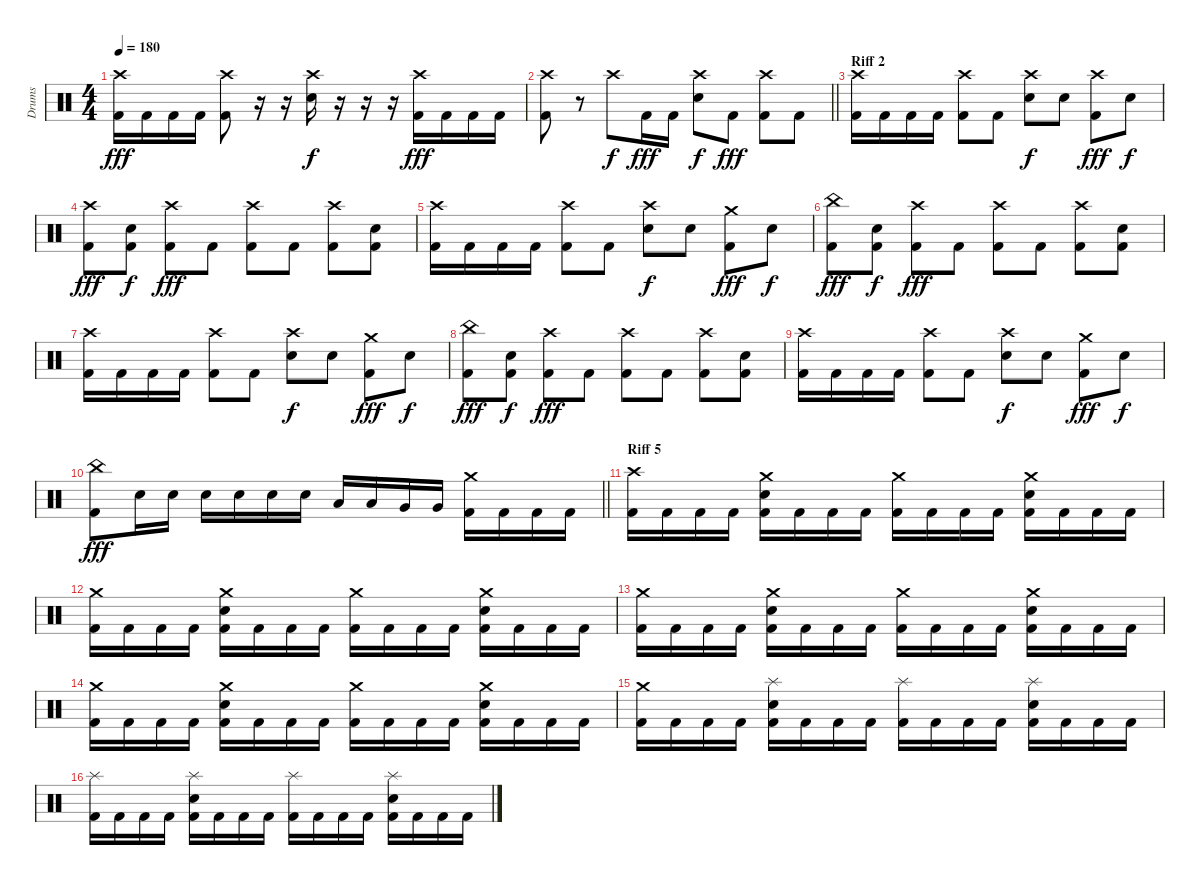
\track ("Drums" "Drums") {instrument percussion}
\staff {score}
\articulation defaults
\ts (4 4)
\tempo 180
\clef neutral
\ks c
("Crash high (hit)" "Kick (hit) 2").16{dy fff} "Kick (hit) 2".16 "Kick (hit) 2".16 "Kick (hit) 2".16 ("Crash high (hit)" "Kick (hit) 2").8 r.16 r.16 ("Crash high (hit)" "Electric Snare (hit)").16{dy f} r.16 r.16 r.16 ("Crash high (hit)" "Kick (hit) 2").16{dy fff} "Kick (hit) 2".16 "Kick (hit) 2".16 "Kick (hit) 2".16 |
\barLineRight lightlight
("Crash high (hit)" "Kick (hit) 2").8 r.8 "Crash high (hit)".8{dy f} "Kick (hit) 2".16{dy fff} "Kick (hit) 2".16 ("Crash high (hit)" "Electric Snare (hit)").8{dy f} "Kick (hit) 2".8{dy fff} ("Crash high (hit)" "Kick (hit) 2").8 "Kick (hit) 2".8 |
\section ("" "Riff 2")
("Crash high (hit)" "Kick (hit) 2").16 "Kick (hit) 2".16 "Kick (hit) 2".16 "Kick (hit) 2".16 ("Crash high (hit)" "Kick (hit) 2").8 "Kick (hit) 2".8 ("Crash high (hit)" "Electric Snare (hit)").8{dy f} "Electric Snare (hit)".8 ("Crash high (hit)" "Kick (hit) 2").8{dy fff} "Electric Snare (hit)".8{dy f} |
("Crash high (hit)" "Kick (hit) 2").8{dy fff} ("Electric Snare (hit)" "Kick (hit) 2").8{dy f} ("Crash high (hit)" "Kick (hit) 2").8{dy fff} "Kick (hit) 2".8 ("Crash high (hit)" "Kick (hit) 2").8 "Kick (hit) 2".8 ("Crash high (hit)" "Kick (hit) 2").8 ("Electric Snare (hit)" "Kick (hit) 2").8 |
("Crash high (hit)" "Kick (hit) 2").16 "Kick (hit) 2".16 "Kick (hit) 2".16 "Kick (hit) 2".16 ("Crash high (hit)" "Kick (hit) 2").8 "Kick (hit) 2".8 ("Crash high (hit)" "Electric Snare (hit)").8{dy f} "Electric Snare (hit)".8 ("Crash medium (hit)" "Kick (hit) 2").8{dy fff} "Electric Snare (hit)".8{dy f} |
("China (hit)" "Kick (hit) 2").8{dy fff} ("Electric Snare (hit)" "Kick (hit) 2").8{dy f} ("Crash high (hit)" "Kick (hit) 2").8{dy fff} "Kick (hit) 2".8 ("Crash high (hit)" "Kick (hit) 2").8 "Kick (hit) 2".8 ("Crash high (hit)" "Kick (hit) 2").8 ("Electric Snare (hit)" "Kick (hit) 2").8 |
("Crash high (hit)" "Kick (hit) 2").16 "Kick (hit) 2".16 "Kick (hit) 2".16 "Kick (hit) 2".16 ("Crash high (hit)" "Kick (hit) 2").8 "Kick (hit) 2".8 ("Crash high (hit)" "Electric Snare (hit)").8{dy f} "Electric Snare (hit)".8 ("Crash medium (hit)" "Kick (hit) 2").8{dy fff} "Electric Snare (hit)".8{dy f} |
("China (hit)" "Kick (hit) 2").8{dy fff} ("Electric Snare (hit)" "Kick (hit) 2").8{dy f} ("Crash high (hit)" "Kick (hit) 2").8{dy fff} "Kick (hit) 2".8 ("Crash high (hit)" "Kick (hit) 2").8 "Kick (hit) 2".8 ("Crash high (hit)" "Kick (hit) 2").8 ("Electric Snare (hit)" "Kick (hit) 2").8 |
("Crash high (hit)" "Kick (hit) 2").16 "Kick (hit) 2".16 "Kick (hit) 2".16 "Kick (hit) 2".16 ("Crash high (hit)" "Kick (hit) 2").8 "Kick (hit) 2".8 ("Crash high (hit)" "Electric Snare (hit)").8{dy f} "Electric Snare (hit)".8 ("Crash medium (hit)" "Kick (hit) 2").8{dy fff} "Electric Snare (hit)".8{dy f} |
\barLineRight lightlight
("China (hit)" "Kick (hit) 2").8{dy fff} "Electric Snare (hit)".16 "Electric Snare (hit)".16 "Electric Snare (hit)".16 "Electric Snare (hit)".16 "Electric Snare (hit)".16 "Electric Snare (hit)".16 "Low Tom (hit)".16 "Low Tom (hit)".16 "Very Low Tom (hit)".16 "Very Low Tom (hit)".16 ("Crash medium (hit)" "Kick (hit) 2").16 "Kick (hit) 2".16 "Kick (hit) 2".16 "Kick (hit) 2".16 |
\section ("" "Riff 5")
("Crash high (hit)" "Kick (hit) 2").16 "Kick (hit) 2".16 "Kick (hit) 2".16 "Kick (hit) 2".16 ("Crash medium (hit)" "Electric Snare (hit)" "Kick (hit) 2").16 "Kick (hit) 2".16 "Kick (hit) 2".16 "Kick (hit) 2".16 ("Crash medium (hit)" "Kick (hit) 2").16 "Kick (hit) 2".16 "Kick (hit) 2".16 "Kick (hit) 2".16 ("Crash medium (hit)" "Electric Snare (hit)" "Kick (hit) 2").16 "Kick (hit) 2".16 "Kick (hit) 2".16 "Kick (hit) 2".16 |
("Crash medium (hit)" "Kick (hit) 2").16 "Kick (hit) 2".16 "Kick (hit) 2".16 "Kick (hit) 2".16 ("Crash medium (hit)" "Electric Snare (hit)" "Kick (hit) 2").16 "Kick (hit) 2".16 "Kick (hit) 2".16 "Kick (hit) 2".16 ("Crash medium (hit)" "Kick (hit) 2").16 "Kick (hit) 2".16 "Kick (hit) 2".16 "Kick (hit) 2".16 ("Crash medium (hit)" "Electric Snare (hit)" "Kick (hit) 2").16 "Kick (hit) 2".16 "Kick (hit) 2".16 "Kick (hit) 2".16 |
("Crash medium (hit)" "Kick (hit) 2").16 "Kick (hit) 2".16 "Kick (hit) 2".16 "Kick (hit) 2".16 ("Crash medium (hit)" "Electric Snare (hit)" "Kick (hit) 2").16 "Kick (hit) 2".16 "Kick (hit) 2".16 "Kick (hit) 2".16 ("Crash medium (hit)" "Kick (hit) 2").16 "Kick (hit) 2".16 "Kick (hit) 2".16 "Kick (hit) 2".16 ("Crash medium (hit)" "Electric Snare (hit)" "Kick (hit) 2").16 "Kick (hit) 2".16 "Kick (hit) 2".16 "Kick (hit) 2".16 |
("Crash medium (hit)" "Kick (hit) 2").16 "Kick (hit) 2".16 "Kick (hit) 2".16 "Kick (hit) 2".16 ("Crash medium (hit)" "Electric Snare (hit)" "Kick (hit) 2").16 "Kick (hit) 2".16 "Kick (hit) 2".16 "Kick (hit) 2".16 ("Crash medium (hit)" "Kick (hit) 2").16 "Kick (hit) 2".16 "Kick (hit) 2".16 "Kick (hit) 2".16 ("Crash medium (hit)" "Electric Snare (hit)" "Kick (hit) 2").16 "Kick (hit) 2".16 "Kick (hit) 2".16 "Kick (hit) 2".16 |
("Crash medium (hit)" "Kick (hit) 2").16 "Kick (hit) 2".16 "Kick (hit) 2".16 "Kick (hit) 2".16 ("Splash (hit)" "Electric Snare (hit)" "Kick (hit) 2").16 "Kick (hit) 2".16 "Kick (hit) 2".16 "Kick (hit) 2".16 ("Splash (hit)" "Kick (hit) 2").16 "Kick (hit) 2".16 "Kick (hit) 2".16 "Kick (hit) 2".16 ("Splash (hit)" "Electric Snare (hit)" "Kick (hit) 2").16 "Kick (hit) 2".16 "Kick (hit) 2".16 "Kick (hit) 2".16 |
("Splash (hit)" "Kick (hit) 2").16 "Kick (hit) 2".16 "Kick (hit) 2".16 "Kick (hit) 2".16 ("Splash (hit)" "Electric Snare (hit)" "Kick (hit) 2").16 "Kick (hit) 2".16 "Kick (hit) 2".16 "Kick (hit) 2".16 ("Splash (hit)" "Kick (hit) 2").16 "Kick (hit) 2".16 "Kick (hit) 2".16 "Kick (hit) 2".16 ("Splash (hit)" "Electric Snare (hit)" "Kick (hit) 2").16 "Kick (hit) 2".16 "Kick (hit) 2".16 "Kick (hit) 2".16
